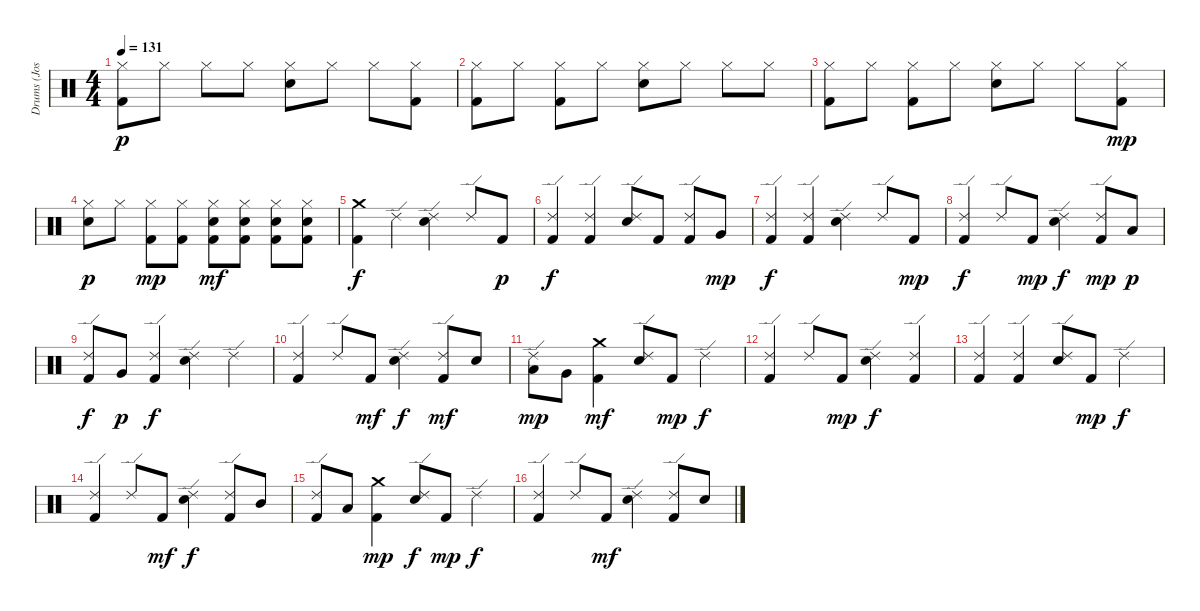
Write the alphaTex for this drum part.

\track ("Drums (Josh Freese)" "Drums (Jos") {instrument percussion}
\staff {score}
\articulation defaults
\ts (4 4)
\tempo 131
\clef neutral
\ks c
("Hi-Hat (closed)" "Kick (hit) 2").8{dy p} "Hi-Hat (closed)".8 "Hi-Hat (closed)".8 "Hi-Hat (closed)".8 ("Hi-Hat (closed)" "Electric Snare (hit)").8 "Hi-Hat (closed)".8 "Hi-Hat (closed)".8 ("Hi-Hat (closed)" "Kick (hit) 2").8 |
("Hi-Hat (closed)" "Kick (hit) 2").8 "Hi-Hat (closed)".8 ("Hi-Hat (closed)" "Kick (hit) 2").8 "Hi-Hat (closed)".8 ("Hi-Hat (closed)" "Electric Snare (hit)").8 "Hi-Hat (closed)".8 "Hi-Hat (closed)".8 "Hi-Hat (closed)".8 |
("Hi-Hat (closed)" "Kick (hit) 2").8 "Hi-Hat (closed)".8 ("Hi-Hat (closed)" "Kick (hit) 2").8 "Hi-Hat (closed)".8 ("Hi-Hat (closed)" "Electric Snare (hit)").8 "Hi-Hat (closed)".8 "Hi-Hat (closed)".8 ("Hi-Hat (closed)" "Kick (hit) 2").8{dy mp} |
("Hi-Hat (closed)" "Electric Snare (hit)").8{dy p} "Hi-Hat (closed)".8 ("Hi-Hat (closed)" "Kick (hit) 2").8{dy mp} ("Hi-Hat (closed)" "Kick (hit) 2").8 ("Hi-Hat (closed)" "Electric Snare (hit)" "Kick (hit) 2").8{dy mf} ("Hi-Hat (closed)" "Electric Snare (hit)" "Kick (hit) 2").8 ("Hi-Hat (closed)" "Electric Snare (hit)" "Kick (hit) 2").8 ("Hi-Hat (closed)" "Electric Snare (hit)" "Kick (hit) 2").8 |
("Crash medium (hit)" "Kick (hit) 2").4{dy f} "Ride (edge) 2".4 ("Ride (edge) 2" "Electric Snare (hit)").4 "Ride (edge) 2".8 "Kick (hit) 2".8{dy p} |
("Ride (edge) 2" "Kick (hit) 2").4{dy f} ("Ride (edge) 2" "Kick (hit) 2").4 ("Ride (edge) 2" "Electric Snare (hit)").8 "Kick (hit) 2".8 ("Ride (edge) 2" "Kick (hit) 2").8 "Very Low Tom (hit)".8{dy mp} |
("Ride (edge) 2" "Kick (hit) 2").4{dy f} ("Ride (edge) 2" "Kick (hit) 2").4 ("Ride (edge) 2" "Electric Snare (hit)").4 "Ride (edge) 2".8 "Kick (hit) 2".8{dy mp} |
("Ride (edge) 2" "Kick (hit) 2").4{dy f} "Ride (edge) 2".8 "Kick (hit) 2".8{dy mp} ("Ride (edge) 2" "Electric Snare (hit)").4{dy f} ("Ride (edge) 2" "Kick (hit) 2").8{dy mp} "Low Tom (hit)".8{dy p} |
("Ride (edge) 2" "Kick (hit) 2").8{dy f} "Very Low Tom (hit)".8{dy p} ("Ride (edge) 2" "Kick (hit) 2").4{dy f} ("Ride (edge) 2" "Electric Snare (hit)").4 "Ride (edge) 2".4 |
("Ride (edge) 2" "Kick (hit) 2").4 "Ride (edge) 2".8 "Kick (hit) 2".8{dy mf} ("Ride (edge) 2" "Electric Snare (hit)").4{dy f} ("Ride (edge) 2" "Kick (hit) 2").8{dy mf} "Electric Snare (hit)".8 |
("Ride (edge) 2" "Low Tom (hit)").8{dy mp} "Very Low Tom (hit)".8 ("Crash medium (hit)" "Kick (hit) 2").4{dy mf} ("Ride (edge) 2" "Electric Snare (hit)").8 "Kick (hit) 2".8{dy mp} "Ride (edge) 2".4{dy f} |
("Ride (edge) 2" "Kick (hit) 2").4 "Ride (edge) 2".8 "Kick (hit) 2".8{dy mp} ("Ride (edge) 2" "Electric Snare (hit)").4{dy f} ("Ride (edge) 2" "Kick (hit) 2").4 |
("Ride (edge) 2" "Kick (hit) 2").4 ("Ride (edge) 2" "Kick (hit) 2").4 ("Ride (edge) 2" "Electric Snare (hit)").8 "Kick (hit) 2".8{dy mp} "Ride (edge) 2".4{dy f} |
("Ride (edge) 2" "Kick (hit) 2").4 "Ride (edge) 2".8 "Kick (hit) 2".8{dy mf} ("Ride (edge) 2" "Electric Snare (hit)").4{dy f} ("Ride (edge) 2" "Kick (hit) 2").8 "Mid Tom (hit)".8 |
("Ride (edge) 2" "Kick (hit) 2").8 "Low Tom (hit)".8 ("Crash medium (hit)" "Kick (hit) 2").4{dy mp} ("Ride (edge) 2" "Electric Snare (hit)").8{dy f} "Kick (hit) 2".8{dy mp} "Ride (edge) 2".4{dy f} |
("Ride (edge) 2" "Kick (hit) 2").4 "Ride (edge) 2".8 "Kick (hit) 2".8{dy mf} ("Ride (edge) 2" "Electric Snare (hit)").4 ("Ride (edge) 2" "Kick (hit) 2").8 "Electric Snare (hit)".8
